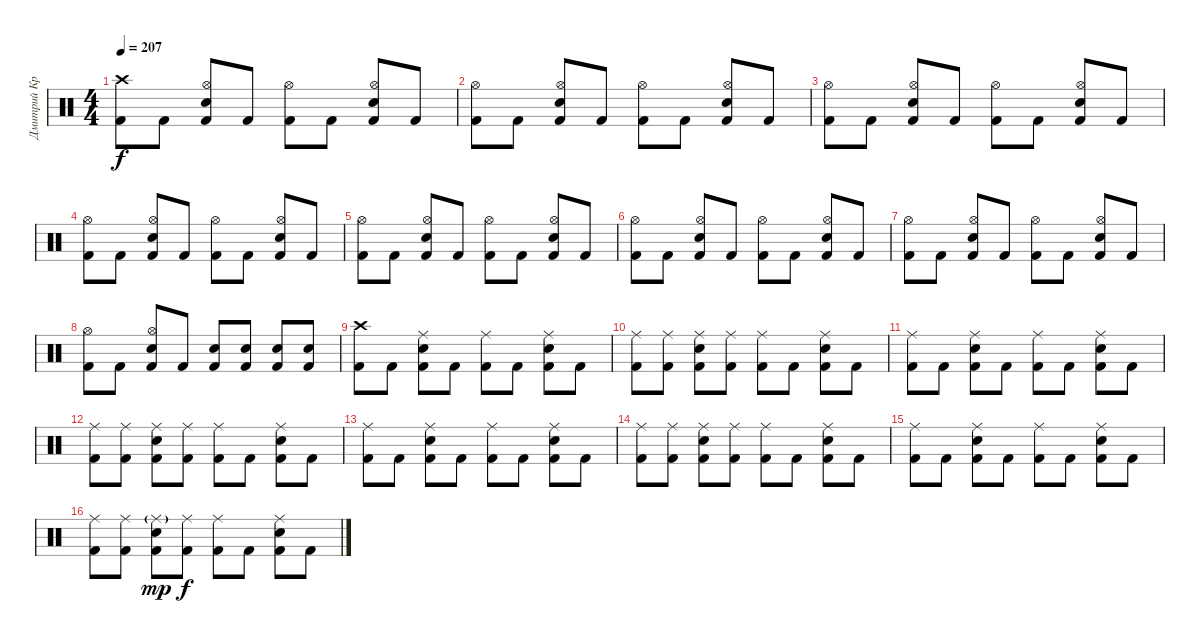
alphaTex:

\track ("Дмитрий Кривенков" "Дмитрий Кр") {instrument percussion}
\staff {score}
\articulation defaults
\ts (4 4)
\tempo 207
\clef neutral
\ks c
("Crash high (hit)" "Kick (hit) 2").8{dy f} "Kick (hit) 2".8 ("Hi-Hat (open)" "Electric Snare (hit)" "Kick (hit) 2").8 "Kick (hit) 2".8 ("Hi-Hat (open)" "Kick (hit) 2").8 "Kick (hit) 2".8 ("Hi-Hat (open)" "Electric Snare (hit)" "Kick (hit) 2").8 "Kick (hit) 2".8 |
("Hi-Hat (open)" "Kick (hit) 2").8 "Kick (hit) 2".8 ("Hi-Hat (open)" "Electric Snare (hit)" "Kick (hit) 2").8 "Kick (hit) 2".8 ("Hi-Hat (open)" "Kick (hit) 2").8 "Kick (hit) 2".8 ("Hi-Hat (open)" "Electric Snare (hit)" "Kick (hit) 2").8 "Kick (hit) 2".8 |
("Hi-Hat (open)" "Kick (hit) 2").8 "Kick (hit) 2".8 ("Hi-Hat (open)" "Electric Snare (hit)" "Kick (hit) 2").8 "Kick (hit) 2".8 ("Hi-Hat (open)" "Kick (hit) 2").8 "Kick (hit) 2".8 ("Hi-Hat (open)" "Electric Snare (hit)" "Kick (hit) 2").8 "Kick (hit) 2".8 |
("Hi-Hat (open)" "Kick (hit) 2").8 "Kick (hit) 2".8 ("Hi-Hat (open)" "Electric Snare (hit)" "Kick (hit) 2").8 "Kick (hit) 2".8 ("Hi-Hat (open)" "Kick (hit) 2").8 "Kick (hit) 2".8 ("Hi-Hat (open)" "Electric Snare (hit)" "Kick (hit) 2").8 "Kick (hit) 2".8 |
("Hi-Hat (open)" "Kick (hit) 2").8 "Kick (hit) 2".8 ("Hi-Hat (open)" "Electric Snare (hit)" "Kick (hit) 2").8 "Kick (hit) 2".8 ("Hi-Hat (open)" "Kick (hit) 2").8 "Kick (hit) 2".8 ("Hi-Hat (open)" "Electric Snare (hit)" "Kick (hit) 2").8 "Kick (hit) 2".8 |
("Hi-Hat (open)" "Kick (hit) 2").8 "Kick (hit) 2".8 ("Hi-Hat (open)" "Electric Snare (hit)" "Kick (hit) 2").8 "Kick (hit) 2".8 ("Hi-Hat (open)" "Kick (hit) 2").8 "Kick (hit) 2".8 ("Hi-Hat (open)" "Electric Snare (hit)" "Kick (hit) 2").8 "Kick (hit) 2".8 |
("Hi-Hat (open)" "Kick (hit) 2").8 "Kick (hit) 2".8 ("Hi-Hat (open)" "Electric Snare (hit)" "Kick (hit) 2").8 "Kick (hit) 2".8 ("Hi-Hat (open)" "Kick (hit) 2").8 "Kick (hit) 2".8 ("Hi-Hat (open)" "Electric Snare (hit)" "Kick (hit) 2").8 "Kick (hit) 2".8 |
("Hi-Hat (open)" "Kick (hit) 2").8 "Kick (hit) 2".8 ("Hi-Hat (open)" "Electric Snare (hit)" "Kick (hit) 2").8 "Kick (hit) 2".8 ("Electric Snare (hit)" "Kick (hit) 2").8 ("Electric Snare (hit)" "Kick (hit) 2").8 ("Electric Snare (hit)" "Kick (hit) 2").8 ("Electric Snare (hit)" "Kick (hit) 2").8 |
("Crash high (hit)" "Kick (hit) 2").8 "Kick (hit) 2".8 ("Ride (middle)" "Electric Snare (hit)" "Kick (hit) 2").8 "Kick (hit) 2".8 ("Ride (middle)" "Kick (hit) 2").8 "Kick (hit) 2".8 ("Ride (middle)" "Electric Snare (hit)" "Kick (hit) 2").8 "Kick (hit) 2".8 |
("Ride (middle)" "Kick (hit) 2").8 ("Ride (middle)" "Kick (hit) 2").8 ("Ride (middle)" "Electric Snare (hit)" "Kick (hit) 2").8 ("Ride (middle)" "Kick (hit) 2").8 ("Ride (middle)" "Kick (hit) 2").8 "Kick (hit) 2".8 ("Ride (middle)" "Electric Snare (hit)" "Kick (hit) 2").8 "Kick (hit) 2".8 |
("Ride (middle)" "Kick (hit) 2").8 "Kick (hit) 2".8 ("Ride (middle)" "Electric Snare (hit)" "Kick (hit) 2").8 "Kick (hit) 2".8 ("Ride (middle)" "Kick (hit) 2").8 "Kick (hit) 2".8 ("Ride (middle)" "Electric Snare (hit)" "Kick (hit) 2").8 "Kick (hit) 2".8 |
("Ride (middle)" "Kick (hit) 2").8 ("Ride (middle)" "Kick (hit) 2").8 ("Ride (middle)" "Electric Snare (hit)" "Kick (hit) 2").8 ("Ride (middle)" "Kick (hit) 2").8 ("Ride (middle)" "Kick (hit) 2").8 "Kick (hit) 2".8 ("Ride (middle)" "Electric Snare (hit)" "Kick (hit) 2").8 "Kick (hit) 2".8 |
("Ride (middle)" "Kick (hit) 2").8 "Kick (hit) 2".8 ("Ride (middle)" "Electric Snare (hit)" "Kick (hit) 2").8 "Kick (hit) 2".8 ("Ride (middle)" "Kick (hit) 2").8 "Kick (hit) 2".8 ("Ride (middle)" "Electric Snare (hit)" "Kick (hit) 2").8 "Kick (hit) 2".8 |
("Ride (middle)" "Kick (hit) 2").8 ("Ride (middle)" "Kick (hit) 2").8 ("Ride (middle)" "Electric Snare (hit)" "Kick (hit) 2").8 ("Ride (middle)" "Kick (hit) 2").8 ("Ride (middle)" "Kick (hit) 2").8 "Kick (hit) 2".8 ("Ride (middle)" "Electric Snare (hit)" "Kick (hit) 2").8 "Kick (hit) 2".8 |
("Ride (middle)" "Kick (hit) 2").8 "Kick (hit) 2".8 ("Ride (middle)" "Electric Snare (hit)" "Kick (hit) 2").8 "Kick (hit) 2".8 ("Ride (middle)" "Kick (hit) 2").8 "Kick (hit) 2".8 ("Ride (middle)" "Electric Snare (hit)" "Kick (hit) 2").8 "Kick (hit) 2".8 |
("Ride (middle)" "Kick (hit) 2").8 ("Ride (middle)" "Kick (hit) 2").8 ("Ride (middle)"{g} "Electric Snare (hit)" "Kick (hit) 2").8{dy mp} ("Ride (middle)" "Kick (hit) 2").8{dy f} ("Ride (middle)" "Kick (hit) 2").8 "Kick (hit) 2".8 ("Ride (middle)" "Electric Snare (hit)" "Kick (hit) 2").8 "Kick (hit) 2".8
